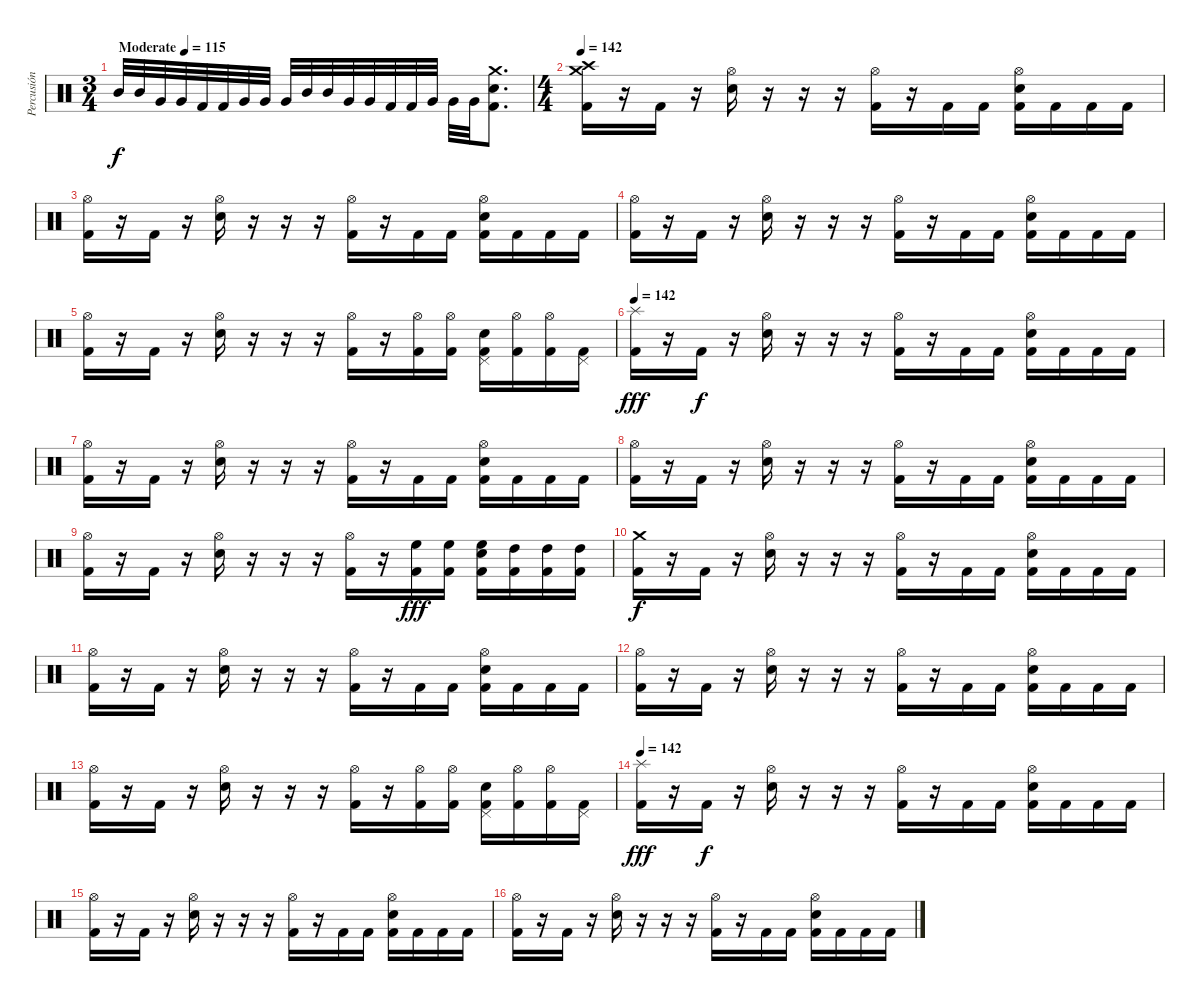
\track ("Percusión" "Percusión") {instrument percussion}
\staff {score}
\articulation defaults
\ts (3 4)
\tempo (115 "Moderate")
\clef neutral
\ks c "Mid Tom (hit)".32{dy f} "Mid Tom (hit)".32 "Very Low Tom (hit)".32 "Very Low Tom (hit)".32 "Kick (hit) 2".32 "Kick (hit) 2".32 "Very Low Tom (hit)".32 "Very Low Tom (hit)".32 "Very Low Tom (hit)".32 "Mid Tom (hit)".32 "Mid Tom (hit)".32 "Very Low Tom (hit)".32 "Very Low Tom (hit)".32 "Kick (hit) 2".32 "Kick (hit) 2".32 "Very Low Tom (hit)".32 "Very Low Tom (hit)".32 "Very Low Tom (hit)".32
("Electric Snare (hit)" "Crash medium (hit)" "Kick (hit) 2").8{d} |
\ts (4 4)
\tempo 142
("Crash high (hit)" "Crash medium (hit)" "Kick (hit) 2").16 r.16 "Kick (hit) 2".16 r.16 ("Hi-Hat (open)" "Electric Snare (hit)").16 r.16 r.16 r.16 ("Hi-Hat (open)" "Kick (hit) 2").16 r.16 "Kick (hit) 2".16 "Kick (hit) 2".16 ("Hi-Hat (open)" "Electric Snare (hit)" "Kick (hit) 2").16 "Kick (hit) 2".16 "Kick (hit) 2".16 "Kick (hit) 2".16 |
("Hi-Hat (open)" "Kick (hit) 2").16 r.16 "Kick (hit) 2".16 r.16 ("Hi-Hat (open)" "Electric Snare (hit)").16 r.16 r.16 r.16 ("Hi-Hat (open)" "Kick (hit) 2").16 r.16 "Kick (hit) 2".16 "Kick (hit) 2".16 ("Hi-Hat (open)" "Electric Snare (hit)" "Kick (hit) 2").16 "Kick (hit) 2".16 "Kick (hit) 2".16 "Kick (hit) 2".16 |
("Hi-Hat (open)" "Kick (hit) 2").16 r.16 "Kick (hit) 2".16 r.16 ("Hi-Hat (open)" "Electric Snare (hit)").16 r.16 r.16 r.16 ("Hi-Hat (open)" "Kick (hit) 2").16 r.16 "Kick (hit) 2".16 "Kick (hit) 2".16 ("Hi-Hat (open)" "Electric Snare (hit)" "Kick (hit) 2").16 "Kick (hit) 2".16 "Kick (hit) 2".16 "Kick (hit) 2".16 |
("Hi-Hat (open)" "Kick (hit) 2").16 r.16 "Kick (hit) 2".16 r.16 ("Hi-Hat (open)" "Electric Snare (hit)").16 r.16 r.16 r.16 ("Hi-Hat (open)" "Kick (hit) 2").16 r.16 ("Hi-Hat (open)" "Kick (hit) 2").16 ("Hi-Hat (open)" "Kick (hit) 2").16 ("Pedal Hi-Hat (hit)" "Electric Snare (hit)" "Kick (hit) 2").16 ("Hi-Hat (open)" "Kick (hit) 2").16 ("Hi-Hat (open)" "Kick (hit) 2").16 ("Pedal Hi-Hat (hit)" "Kick (hit) 2").16 |
\tempo 142
("Splash (hit)" "Kick (hit) 2").16{dy fff} r.16 "Kick (hit) 2".16{dy f} r.16 ("Hi-Hat (open)" "Electric Snare (hit)").16 r.16 r.16 r.16 ("Hi-Hat (open)" "Kick (hit) 2").16 r.16 "Kick (hit) 2".16 "Kick (hit) 2".16 ("Hi-Hat (open)" "Electric Snare (hit)" "Kick (hit) 2").16 "Kick (hit) 2".16 "Kick (hit) 2".16 "Kick (hit) 2".16 |
("Hi-Hat (open)" "Kick (hit) 2").16 r.16 "Kick (hit) 2".16 r.16 ("Hi-Hat (open)" "Electric Snare (hit)").16 r.16 r.16 r.16 ("Hi-Hat (open)" "Kick (hit) 2").16 r.16 "Kick (hit) 2".16 "Kick (hit) 2".16 ("Hi-Hat (open)" "Electric Snare (hit)" "Kick (hit) 2").16 "Kick (hit) 2".16 "Kick (hit) 2".16 "Kick (hit) 2".16 |
("Hi-Hat (open)" "Kick (hit) 2").16 r.16 "Kick (hit) 2".16 r.16 ("Hi-Hat (open)" "Electric Snare (hit)").16 r.16 r.16 r.16 ("Hi-Hat (open)" "Kick (hit) 2").16 r.16 "Kick (hit) 2".16 "Kick (hit) 2".16 ("Hi-Hat (open)" "Electric Snare (hit)" "Kick (hit) 2").16 "Kick (hit) 2".16 "Kick (hit) 2".16 "Kick (hit) 2".16 |
("Hi-Hat (open)" "Kick (hit) 2").16 r.16 "Kick (hit) 2".16 r.16 ("Hi-Hat (open)" "Electric Snare (hit)").16 r.16 r.16 r.16 ("Hi-Hat (open)" "Kick (hit) 2").16 r.16 ("High Floor Tom (hit)" "Kick (hit) 2").16{dy fff} ("High Floor Tom (hit)" "Kick (hit) 2").16 ("High Floor Tom (hit)" "Electric Snare (hit)" "Kick (hit) 2").16 ("High Tom (hit)" "Kick (hit) 2").16 ("High Tom (hit)" "Kick (hit) 2").16 ("High Tom (hit)" "Kick (hit) 2").16 |
("Crash medium (hit)" "Kick (hit) 2").16{dy f} r.16 "Kick (hit) 2".16 r.16 ("Hi-Hat (open)" "Electric Snare (hit)").16 r.16 r.16 r.16 ("Hi-Hat (open)" "Kick (hit) 2").16 r.16 "Kick (hit) 2".16 "Kick (hit) 2".16 ("Hi-Hat (open)" "Electric Snare (hit)" "Kick (hit) 2").16 "Kick (hit) 2".16 "Kick (hit) 2".16 "Kick (hit) 2".16 |
("Hi-Hat (open)" "Kick (hit) 2").16 r.16 "Kick (hit) 2".16 r.16 ("Hi-Hat (open)" "Electric Snare (hit)").16 r.16 r.16 r.16 ("Hi-Hat (open)" "Kick (hit) 2").16 r.16 "Kick (hit) 2".16 "Kick (hit) 2".16 ("Hi-Hat (open)" "Electric Snare (hit)" "Kick (hit) 2").16 "Kick (hit) 2".16 "Kick (hit) 2".16 "Kick (hit) 2".16 |
("Hi-Hat (open)" "Kick (hit) 2").16 r.16 "Kick (hit) 2".16 r.16 ("Hi-Hat (open)" "Electric Snare (hit)").16 r.16 r.16 r.16 ("Hi-Hat (open)" "Kick (hit) 2").16 r.16 "Kick (hit) 2".16 "Kick (hit) 2".16 ("Hi-Hat (open)" "Electric Snare (hit)" "Kick (hit) 2").16 "Kick (hit) 2".16 "Kick (hit) 2".16 "Kick (hit) 2".16 |
("Hi-Hat (open)" "Kick (hit) 2").16 r.16 "Kick (hit) 2".16 r.16 ("Hi-Hat (open)" "Electric Snare (hit)").16 r.16 r.16 r.16 ("Hi-Hat (open)" "Kick (hit) 2").16 r.16 ("Hi-Hat (open)" "Kick (hit) 2").16 ("Hi-Hat (open)" "Kick (hit) 2").16 ("Pedal Hi-Hat (hit)" "Electric Snare (hit)" "Kick (hit) 2").16 ("Hi-Hat (open)" "Kick (hit) 2").16 ("Hi-Hat (open)" "Kick (hit) 2").16 ("Pedal Hi-Hat (hit)" "Kick (hit) 2").16 |
\tempo 142
("Splash (hit)" "Kick (hit) 2").16{dy fff} r.16 "Kick (hit) 2".16{dy f} r.16 ("Hi-Hat (open)" "Electric Snare (hit)").16 r.16 r.16 r.16 ("Hi-Hat (open)" "Kick (hit) 2").16 r.16 "Kick (hit) 2".16 "Kick (hit) 2".16 ("Hi-Hat (open)" "Electric Snare (hit)" "Kick (hit) 2").16 "Kick (hit) 2".16 "Kick (hit) 2".16 "Kick (hit) 2".16 |
("Hi-Hat (open)" "Kick (hit) 2").16 r.16 "Kick (hit) 2".16 r.16 ("Hi-Hat (open)" "Electric Snare (hit)").16 r.16 r.16 r.16 ("Hi-Hat (open)" "Kick (hit) 2").16 r.16 "Kick (hit) 2".16 "Kick (hit) 2".16 ("Hi-Hat (open)" "Electric Snare (hit)" "Kick (hit) 2").16 "Kick (hit) 2".16 "Kick (hit) 2".16 "Kick (hit) 2".16 |
("Hi-Hat (open)" "Kick (hit) 2").16 r.16 "Kick (hit) 2".16 r.16 ("Hi-Hat (open)" "Electric Snare (hit)").16 r.16 r.16 r.16 ("Hi-Hat (open)" "Kick (hit) 2").16 r.16 "Kick (hit) 2".16 "Kick (hit) 2".16 ("Hi-Hat (open)" "Electric Snare (hit)" "Kick (hit) 2").16 "Kick (hit) 2".16 "Kick (hit) 2".16 "Kick (hit) 2".16
